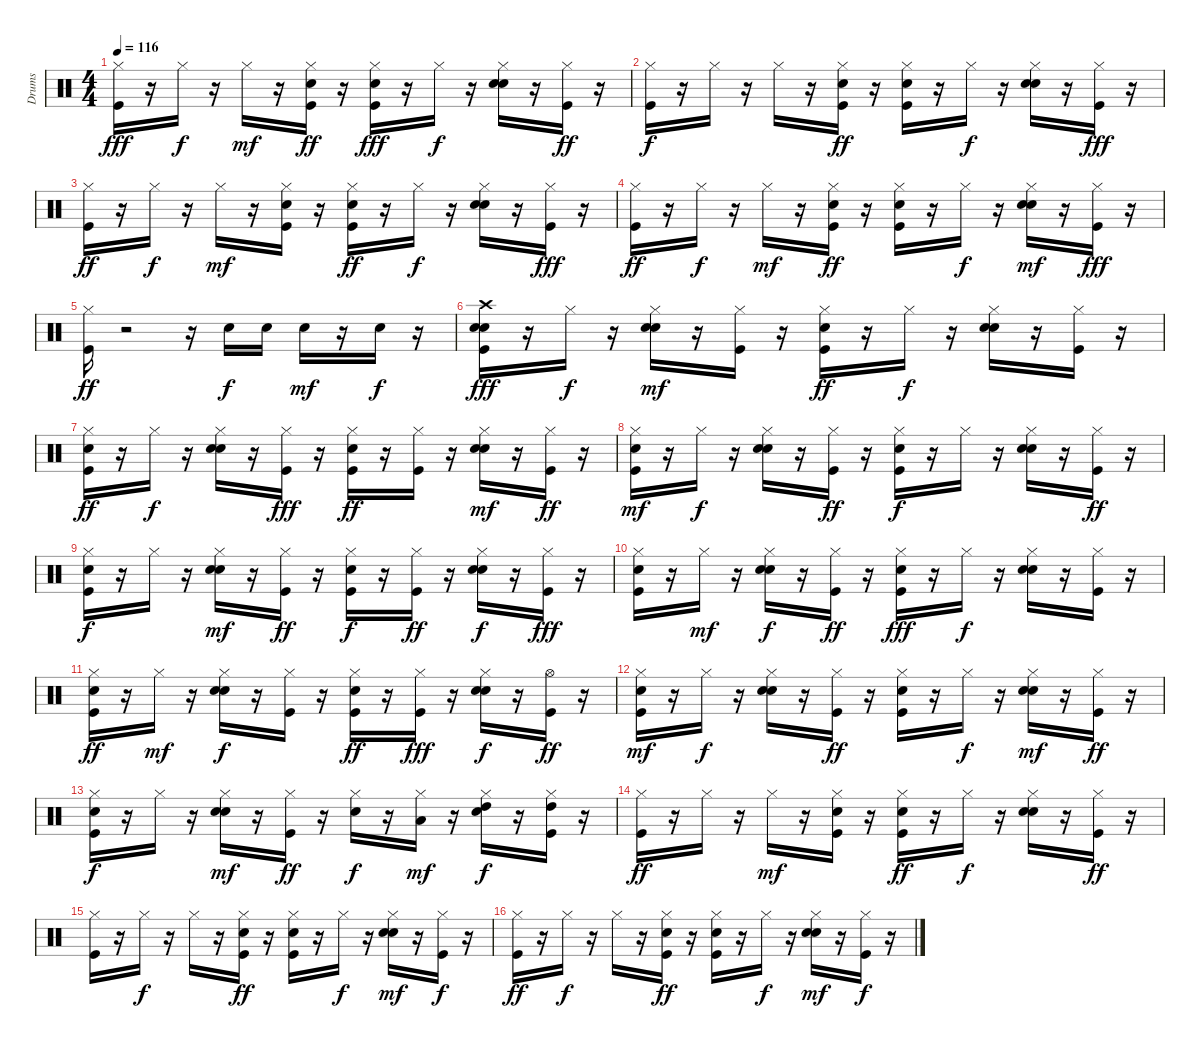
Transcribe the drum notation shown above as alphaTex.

\track ("Drums   " "Drums   ") {instrument percussion}
\staff {score}
\articulation defaults
\ts (4 4)
\tempo 116
\clef neutral
\ks c
("Hi-Hat (closed)" "Kick (hit)").16{dy fff} r.16 "Hi-Hat (closed)".16{dy f} r.16 "Hi-Hat (closed)".16{dy mf} r.16 ("Hi-Hat (closed)" "Hand Clap (hit)" "Kick (hit)").16{dy ff} r.16 ("Hi-Hat (closed)" "Hand Clap (hit)" "Kick (hit)").16{dy fff} r.16 "Hi-Hat (closed)".16{dy f} r.16 ("Hi-Hat (closed)" "Hand Clap (hit)" "Snare (hit) 2").16 r.16 ("Hi-Hat (closed)" "Kick (hit)").16{dy ff} r.16 |
("Hi-Hat (closed)" "Kick (hit)").16{dy f} r.16 "Hi-Hat (closed)".16 r.16 "Hi-Hat (closed)".16 r.16 ("Hi-Hat (closed)" "Hand Clap (hit)" "Kick (hit)").16{dy ff} r.16 ("Hi-Hat (closed)" "Hand Clap (hit)" "Kick (hit)").16 r.16 "Hi-Hat (closed)".16{dy f} r.16 ("Hi-Hat (closed)" "Hand Clap (hit)" "Snare (hit) 2").16 r.16 ("Hi-Hat (closed)" "Kick (hit)").16{dy fff} r.16 |
("Hi-Hat (closed)" "Kick (hit)").16{dy ff} r.16 "Hi-Hat (closed)".16{dy f} r.16 "Hi-Hat (closed)".16{dy mf} r.16 ("Hi-Hat (closed)" "Hand Clap (hit)" "Kick (hit)").16 r.16 ("Hi-Hat (closed)" "Hand Clap (hit)" "Kick (hit)").16{dy ff} r.16 "Hi-Hat (closed)".16{dy f} r.16 ("Hi-Hat (closed)" "Hand Clap (hit)" "Snare (hit) 2").16 r.16 ("Hi-Hat (closed)" "Kick (hit)").16{dy fff} r.16 |
("Hi-Hat (closed)" "Kick (hit)").16{dy ff} r.16 "Hi-Hat (closed)".16{dy f} r.16 "Hi-Hat (closed)".16{dy mf} r.16 ("Hi-Hat (closed)" "Hand Clap (hit)" "Kick (hit)").16{dy ff} r.16 ("Hi-Hat (closed)" "Hand Clap (hit)" "Kick (hit)").16 r.16 "Hi-Hat (closed)".16{dy f} r.16 ("Hi-Hat (closed)" "Hand Clap (hit)" "Snare (hit) 2").16{dy mf} r.16 ("Hi-Hat (closed)" "Kick (hit)").16{dy fff} r.16 |
("Hi-Hat (closed)" "Kick (hit)").16{dy ff} r.2 r.16 "Snare (hit) 2".16{dy f} "Snare (hit) 2".16 "Snare (hit) 2".16{dy mf} r.16 "Snare (hit) 2".16{dy f} r.16 |
("Snare (hit) 2" "Crash high (hit)" "Kick (hit)" "Hand Clap (hit)").16{dy fff} r.16 "Hi-Hat (closed)".16{dy f} r.16 ("Snare (hit) 2" "Hi-Hat (closed)" "Hand Clap (hit)").16{dy mf} r.16 ("Hi-Hat (closed)" "Kick (hit)").16 r.16 ("Hi-Hat (closed)" "Kick (hit)" "Hand Clap (hit)").16{dy ff} r.16 "Hi-Hat (closed)".16{dy f} r.16 ("Snare (hit) 2" "Hi-Hat (closed)" "Hand Clap (hit)").16 r.16 ("Hi-Hat (closed)" "Kick (hit)").16 r.16 |
("Hi-Hat (closed)" "Kick (hit)" "Hand Clap (hit)").16{dy ff} r.16 "Hi-Hat (closed)".16{dy f} r.16 ("Snare (hit) 2" "Hi-Hat (closed)" "Hand Clap (hit)").16 r.16 ("Hi-Hat (closed)" "Kick (hit)").16{dy fff} r.16 ("Hi-Hat (closed)" "Kick (hit)" "Hand Clap (hit)").16{dy ff} r.16 ("Hi-Hat (closed)" "Kick (hit)").16 r.16 ("Snare (hit) 2" "Hi-Hat (closed)" "Hand Clap (hit)").16{dy mf} r.16 ("Hi-Hat (closed)" "Kick (hit)").16{dy ff} r.16 |
("Hi-Hat (closed)" "Kick (hit)" "Hand Clap (hit)").16{dy mf} r.16 "Hi-Hat (closed)".16{dy f} r.16 ("Snare (hit) 2" "Hi-Hat (closed)" "Hand Clap (hit)").16 r.16 ("Hi-Hat (closed)" "Kick (hit)").16{dy ff} r.16 ("Hi-Hat (closed)" "Kick (hit)" "Hand Clap (hit)").16{dy f} r.16 "Hi-Hat (closed)".16 r.16 ("Snare (hit) 2" "Hi-Hat (closed)" "Hand Clap (hit)").16 r.16 ("Hi-Hat (closed)" "Kick (hit)").16{dy ff} r.16 |
("Hi-Hat (closed)" "Kick (hit)" "Hand Clap (hit)").16{dy f} r.16 "Hi-Hat (closed)".16 r.16 ("Snare (hit) 2" "Hi-Hat (closed)" "Hand Clap (hit)").16{dy mf} r.16 ("Hi-Hat (closed)" "Kick (hit)").16{dy ff} r.16 ("Hi-Hat (closed)" "Kick (hit)" "Hand Clap (hit)").16{dy f} r.16 ("Hi-Hat (closed)" "Kick (hit)").16{dy ff} r.16 ("Snare (hit) 2" "Hi-Hat (closed)" "Hand Clap (hit)").16{dy f} r.16 ("Hi-Hat (closed)" "Kick (hit)").16{dy fff} r.16 |
("Hi-Hat (closed)" "Kick (hit)" "Hand Clap (hit)").16 r.16 "Hi-Hat (closed)".16{dy mf} r.16 ("Snare (hit) 2" "Hi-Hat (closed)" "Hand Clap (hit)").16{dy f} r.16 ("Hi-Hat (closed)" "Kick (hit)").16{dy ff} r.16 ("Hi-Hat (closed)" "Kick (hit)" "Hand Clap (hit)").16{dy fff} r.16 "Hi-Hat (closed)".16{dy f} r.16 ("Snare (hit) 2" "Hi-Hat (closed)" "Hand Clap (hit)").16 r.16 ("Hi-Hat (closed)" "Kick (hit)").16 r.16 |
("Hi-Hat (closed)" "Kick (hit)" "Hand Clap (hit)").16{dy ff} r.16 "Hi-Hat (closed)".16{dy mf} r.16 ("Snare (hit) 2" "Hi-Hat (closed)" "Hand Clap (hit)").16{dy f} r.16 ("Hi-Hat (closed)" "Kick (hit)").16 r.16 ("Hi-Hat (closed)" "Kick (hit)" "Hand Clap (hit)").16{dy ff} r.16 ("Hi-Hat (closed)" "Kick (hit)").16{dy fff} r.16 ("Snare (hit) 2" "Hi-Hat (closed)" "Hand Clap (hit)").16{dy f} r.16 ("Hi-Hat (open)" "Kick (hit)").16{dy ff} r.16 |
("Hi-Hat (closed)" "Kick (hit)" "Hand Clap (hit)").16{dy mf} r.16 "Hi-Hat (closed)".16{dy f} r.16 ("Snare (hit) 2" "Hi-Hat (closed)" "Hand Clap (hit)").16 r.16 ("Hi-Hat (closed)" "Kick (hit)").16{dy ff} r.16 ("Hi-Hat (closed)" "Kick (hit)" "Hand Clap (hit)").16 r.16 "Hi-Hat (closed)".16{dy f} r.16 ("Snare (hit) 2" "Hi-Hat (closed)" "Hand Clap (hit)").16{dy mf} r.16 ("Hi-Hat (closed)" "Kick (hit)").16{dy ff} r.16 |
("Hi-Hat (closed)" "Kick (hit)" "Hand Clap (hit)").16{dy f} r.16 "Hi-Hat (closed)".16 r.16 ("Snare (hit) 2" "Hi-Hat (closed)" "Hand Clap (hit)").16{dy mf} r.16 ("Hi-Hat (closed)" "Kick (hit)").16{dy ff} r.16 ("Hi-Hat (closed)" "Hand Clap (hit)").16{dy f} r.16 ("Hi-Hat (closed)" "Low Tom (hit)").16{dy mf} r.16 ("Snare (hit) 2" "Hi-Hat (closed)" "High Tom (hit)").16{dy f} r.16 ("Hi-Hat (closed)" "High Tom (hit)" "Kick (hit)").16 r.16 |
("Hi-Hat (closed)" "Kick (hit)").16{dy ff} r.16 "Hi-Hat (closed)".16 r.16 "Hi-Hat (closed)".16{dy mf} r.16 ("Hi-Hat (closed)" "Hand Clap (hit)" "Kick (hit)").16 r.16 ("Hi-Hat (closed)" "Hand Clap (hit)" "Kick (hit)").16{dy ff} r.16 "Hi-Hat (closed)".16{dy f} r.16 ("Hi-Hat (closed)" "Hand Clap (hit)" "Snare (hit) 2").16 r.16 ("Hi-Hat (closed)" "Kick (hit)").16{dy ff} r.16 |
("Hi-Hat (closed)" "Kick (hit)").16 r.16 "Hi-Hat (closed)".16{dy f} r.16 "Hi-Hat (closed)".16 r.16 ("Hi-Hat (closed)" "Hand Clap (hit)" "Kick (hit)").16{dy ff} r.16 ("Hi-Hat (closed)" "Hand Clap (hit)" "Kick (hit)").16 r.16 "Hi-Hat (closed)".16{dy f} r.16 ("Hi-Hat (closed)" "Hand Clap (hit)" "Snare (hit) 2").16{dy mf} r.16 ("Hi-Hat (closed)" "Kick (hit)").16{dy f} r.16 |
("Hi-Hat (closed)" "Kick (hit)").16{dy ff} r.16 "Hi-Hat (closed)".16{dy f} r.16 "Hi-Hat (closed)".16 r.16 ("Hi-Hat (closed)" "Hand Clap (hit)" "Kick (hit)").16{dy ff} r.16 ("Hi-Hat (closed)" "Hand Clap (hit)" "Kick (hit)").16 r.16 "Hi-Hat (closed)".16{dy f} r.16 ("Hi-Hat (closed)" "Hand Clap (hit)" "Snare (hit) 2").16{dy mf} r.16 ("Hi-Hat (closed)" "Kick (hit)").16{dy f} r.16
